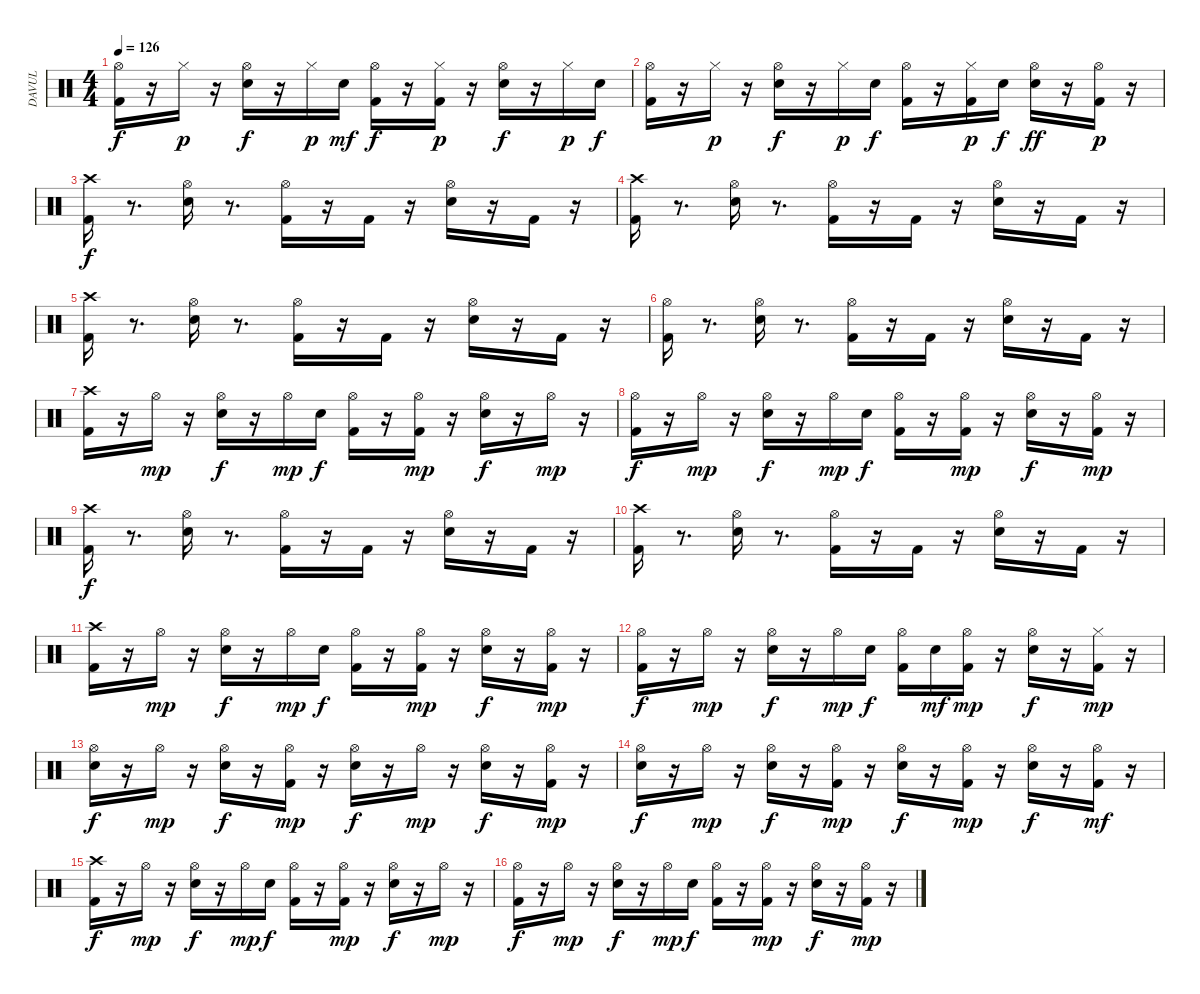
\track ("DAVUL" "DAVUL") {instrument percussion}
\staff {score}
\articulation defaults
\ts (4 4)
\tempo 126
\clef neutral
\ks c
("Kick (hit) 2" "Hi-Hat (open)").16{dy f} r.16 "Hi-Hat (closed)".16{dy p} r.16 ("Electric Snare (hit)" "Hi-Hat (open)").16{dy f} r.16 "Hi-Hat (closed)".16{dy p} "Electric Snare (hit)".16{dy mf} ("Hi-Hat (open)" "Kick (hit) 2").16{dy f} r.16 ("Hi-Hat (closed)" "Kick (hit) 2").16{dy p} r.16 ("Electric Snare (hit)" "Hi-Hat (open)").16{dy f} r.16 "Hi-Hat (closed)".16{dy p} "Electric Snare (hit)".16{dy f} |
("Hi-Hat (open)" "Kick (hit) 2").16 r.16 "Hi-Hat (closed)".16{dy p} r.16 ("Electric Snare (hit)" "Hi-Hat (open)").16{dy f} r.16 "Hi-Hat (closed)".16{dy p} "Electric Snare (hit)".16{dy f} ("Hi-Hat (open)" "Kick (hit) 2").16 r.16 ("Hi-Hat (closed)" "Kick (hit) 2").16{dy p} "Electric Snare (hit)".16{dy f} ("Electric Snare (hit)" "Hi-Hat (open)").16{dy ff} r.16 ("Kick (hit) 2" "Hi-Hat (open)").16{dy p} r.16 |
("Crash high (hit)" "Kick (hit) 2").16{dy f} r.8{d} ("Hi-Hat (open)" "Electric Snare (hit)").16 r.8{d} ("Hi-Hat (open)" "Kick (hit) 2").16 r.16 "Kick (hit) 2".16 r.16 ("Hi-Hat (open)" "Electric Snare (hit)").16 r.16 "Kick (hit) 2".16 r.16 |
("Kick (hit) 2" "Crash high (hit)").16 r.8{d} ("Hi-Hat (open)" "Electric Snare (hit)").16 r.8{d} ("Hi-Hat (open)" "Kick (hit) 2").16 r.16 "Kick (hit) 2".16 r.16 ("Hi-Hat (open)" "Electric Snare (hit)").16 r.16 "Kick (hit) 2".16 r.16 |
("Crash high (hit)" "Kick (hit) 2").16 r.8{d} ("Hi-Hat (open)" "Electric Snare (hit)").16 r.8{d} ("Hi-Hat (open)" "Kick (hit) 2").16 r.16 "Kick (hit) 2".16 r.16 ("Hi-Hat (open)" "Electric Snare (hit)").16 r.16 "Kick (hit) 2".16 r.16 |
("Kick (hit) 2" "Hi-Hat (open)").16 r.8{d} ("Hi-Hat (open)" "Electric Snare (hit)").16 r.8{d} ("Hi-Hat (open)" "Kick (hit) 2").16 r.16 "Kick (hit) 2".16 r.16 ("Hi-Hat (open)" "Electric Snare (hit)").16 r.16 "Kick (hit) 2".16 r.16 |
("Kick (hit) 2" "Crash high (hit)").16 r.16 "Hi-Hat (open)".16{dy mp} r.16 ("Hi-Hat (open)" "Electric Snare (hit)").16{dy f} r.16 "Hi-Hat (open)".16{dy mp} "Electric Snare (hit)".16{dy f} ("Hi-Hat (open)" "Kick (hit) 2").16 r.16 ("Hi-Hat (open)" "Kick (hit) 2").16{dy mp} r.16 ("Hi-Hat (open)" "Electric Snare (hit)").16{dy f} r.16 "Hi-Hat (open)".16{dy mp} r.16 |
("Kick (hit) 2" "Hi-Hat (open)").16{dy f} r.16 "Hi-Hat (open)".16{dy mp} r.16 ("Hi-Hat (open)" "Electric Snare (hit)").16{dy f} r.16 "Hi-Hat (open)".16{dy mp} "Electric Snare (hit)".16{dy f} ("Hi-Hat (open)" "Kick (hit) 2").16 r.16 ("Hi-Hat (open)" "Kick (hit) 2").16{dy mp} r.16 ("Hi-Hat (open)" "Electric Snare (hit)").16{dy f} r.16 ("Kick (hit) 2" "Hi-Hat (open)").16{dy mp} r.16 |
("Crash high (hit)" "Kick (hit) 2").16{dy f} r.8{d} ("Hi-Hat (open)" "Electric Snare (hit)").16 r.8{d} ("Hi-Hat (open)" "Kick (hit) 2").16 r.16 "Kick (hit) 2".16 r.16 ("Hi-Hat (open)" "Electric Snare (hit)").16 r.16 "Kick (hit) 2".16 r.16 |
("Kick (hit) 2" "Crash high (hit)").16 r.8{d} ("Hi-Hat (open)" "Electric Snare (hit)").16 r.8{d} ("Hi-Hat (open)" "Kick (hit) 2").16 r.16 "Kick (hit) 2".16 r.16 ("Hi-Hat (open)" "Electric Snare (hit)").16 r.16 "Kick (hit) 2".16 r.16 |
("Kick (hit) 2" "Crash high (hit)").16 r.16 "Hi-Hat (open)".16{dy mp} r.16 ("Hi-Hat (open)" "Electric Snare (hit)").16{dy f} r.16 "Hi-Hat (open)".16{dy mp} "Electric Snare (hit)".16{dy f} ("Hi-Hat (open)" "Kick (hit) 2").16 r.16 ("Hi-Hat (open)" "Kick (hit) 2").16{dy mp} r.16 ("Hi-Hat (open)" "Electric Snare (hit)").16{dy f} r.16 ("Hi-Hat (open)" "Kick (hit) 2").16{dy mp} r.16 |
("Kick (hit) 2" "Hi-Hat (open)").16{dy f} r.16 "Hi-Hat (open)".16{dy mp} r.16 ("Hi-Hat (open)" "Electric Snare (hit)").16{dy f} r.16 "Hi-Hat (open)".16{dy mp} "Electric Snare (hit)".16{dy f} ("Hi-Hat (open)" "Kick (hit) 2").16 "Electric Snare (hit)".16{dy mf} ("Hi-Hat (open)" "Kick (hit) 2").16{dy mp} r.16 ("Hi-Hat (open)" "Electric Snare (hit)").16{dy f} r.16 ("Kick (hit) 2" "Hi-Hat (closed)").16{dy mp} r.16 |
("Electric Snare (hit)" "Hi-Hat (open)").16{dy f} r.16 "Hi-Hat (open)".16{dy mp} r.16 ("Hi-Hat (open)" "Electric Snare (hit)").16{dy f} r.16 ("Hi-Hat (open)" "Kick (hit) 2").16{dy mp} r.16 ("Hi-Hat (open)" "Electric Snare (hit)").16{dy f} r.16 "Hi-Hat (open)".16{dy mp} r.16 ("Hi-Hat (open)" "Electric Snare (hit)").16{dy f} r.16 ("Hi-Hat (open)" "Kick (hit) 2").16{dy mp} r.16 |
("Hi-Hat (open)" "Electric Snare (hit)").16{dy f} r.16 "Hi-Hat (open)".16{dy mp} r.16 ("Hi-Hat (open)" "Electric Snare (hit)").16{dy f} r.16 ("Hi-Hat (open)" "Kick (hit) 2").16{dy mp} r.16 ("Hi-Hat (open)" "Electric Snare (hit)").16{dy f} r.16 ("Hi-Hat (open)" "Kick (hit) 2").16{dy mp} r.16 ("Hi-Hat (open)" "Electric Snare (hit)").16{dy f} r.16 ("Kick (hit) 2" "Hi-Hat (open)").16{dy mf} r.16 |
("Kick (hit) 2" "Crash high (hit)").16{dy f} r.16 "Hi-Hat (open)".16{dy mp} r.16 ("Hi-Hat (open)" "Electric Snare (hit)").16{dy f} r.16 "Hi-Hat (open)".16{dy mp} "Electric Snare (hit)".16{dy f} ("Hi-Hat (open)" "Kick (hit) 2").16 r.16 ("Hi-Hat (open)" "Kick (hit) 2").16{dy mp} r.16 ("Hi-Hat (open)" "Electric Snare (hit)").16{dy f} r.16 "Hi-Hat (open)".16{dy mp} r.16 |
("Kick (hit) 2" "Hi-Hat (open)").16{dy f} r.16 "Hi-Hat (open)".16{dy mp} r.16 ("Hi-Hat (open)" "Electric Snare (hit)").16{dy f} r.16 "Hi-Hat (open)".16{dy mp} "Electric Snare (hit)".16{dy f} ("Hi-Hat (open)" "Kick (hit) 2").16 r.16 ("Hi-Hat (open)" "Kick (hit) 2").16{dy mp} r.16 ("Hi-Hat (open)" "Electric Snare (hit)").16{dy f} r.16 ("Kick (hit) 2" "Hi-Hat (open)").16{dy mp} r.16
